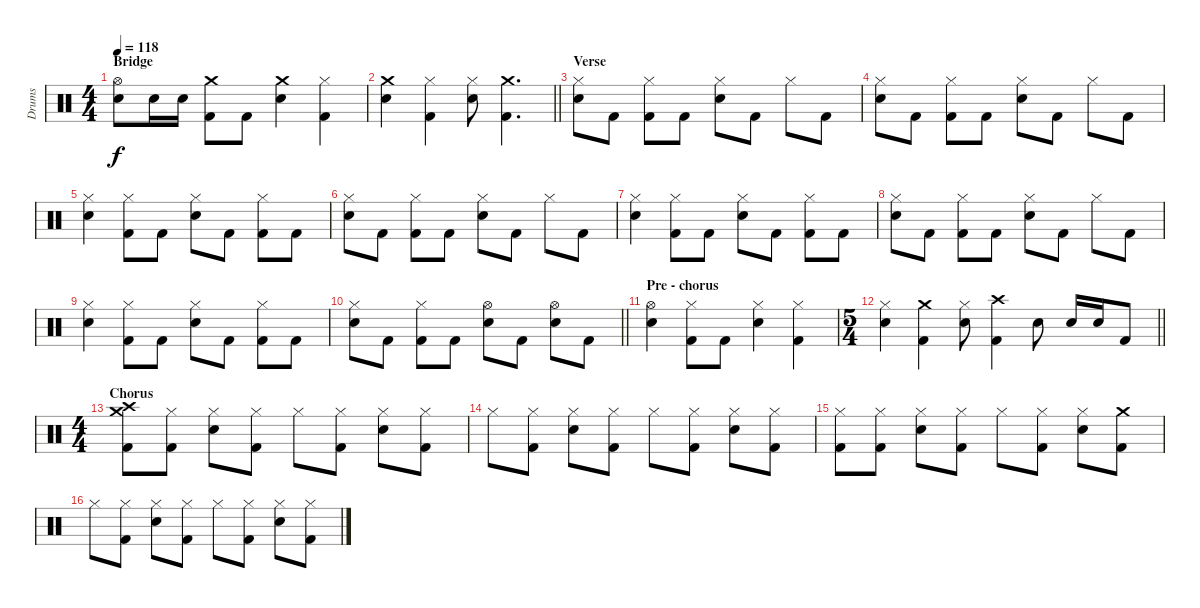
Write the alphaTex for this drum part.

\track ("Drums" "Drums") {instrument percussion}
\staff {score}
\articulation defaults
\ts (4 4)
\section ("" "Bridge")
\tempo 118
\clef neutral
\ks c
("Hi-Hat (open)" "Snare (hit) 2").8{dy f} "Snare (hit) 2".16 "Snare (hit) 2".16 ("Crash medium (hit)" "Kick (hit) 2").8 "Kick (hit) 2".8 ("Crash medium (hit)" "Snare (hit) 2").4 ("Hi-Hat (closed)" "Kick (hit) 2").4 |
\barLineRight lightlight
("Crash medium (hit)" "Snare (hit) 2").4 ("Hi-Hat (closed)" "Kick (hit) 2").4 ("Hi-Hat (closed)" "Snare (hit) 2").8 ("Crash medium (hit)" "Kick (hit) 2").4{d} |
\section ("" "Verse")
("Hi-Hat (closed)" "Snare (hit) 2").8 "Kick (hit) 2".8 ("Hi-Hat (closed)" "Kick (hit) 2").8 "Kick (hit) 2".8 ("Hi-Hat (closed)" "Snare (hit) 2").8 "Kick (hit) 2".8 "Hi-Hat (closed)".8 "Kick (hit) 2".8 |
("Hi-Hat (closed)" "Snare (hit) 2").8 "Kick (hit) 2".8 ("Hi-Hat (closed)" "Kick (hit) 2").8 "Kick (hit) 2".8 ("Hi-Hat (closed)" "Snare (hit) 2").8 "Kick (hit) 2".8 "Hi-Hat (closed)".8 "Kick (hit) 2".8 |
("Hi-Hat (closed)" "Snare (hit) 2").4 ("Hi-Hat (closed)" "Kick (hit) 2").8 "Kick (hit) 2".8 ("Hi-Hat (closed)" "Snare (hit) 2").8 "Kick (hit) 2".8 ("Hi-Hat (closed)" "Kick (hit) 2").8 "Kick (hit) 2".8 |
("Hi-Hat (closed)" "Snare (hit) 2").8 "Kick (hit) 2".8 ("Hi-Hat (closed)" "Kick (hit) 2").8 "Kick (hit) 2".8 ("Hi-Hat (closed)" "Snare (hit) 2").8 "Kick (hit) 2".8 "Hi-Hat (closed)".8 "Kick (hit) 2".8 |
("Hi-Hat (closed)" "Snare (hit) 2").4 ("Hi-Hat (closed)" "Kick (hit) 2").8 "Kick (hit) 2".8 ("Hi-Hat (closed)" "Snare (hit) 2").8 "Kick (hit) 2".8 ("Hi-Hat (closed)" "Kick (hit) 2").8 "Kick (hit) 2".8 |
("Hi-Hat (closed)" "Snare (hit) 2").8 "Kick (hit) 2".8 ("Hi-Hat (closed)" "Kick (hit) 2").8 "Kick (hit) 2".8 ("Hi-Hat (closed)" "Snare (hit) 2").8 "Kick (hit) 2".8 "Hi-Hat (closed)".8 "Kick (hit) 2".8 |
("Hi-Hat (closed)" "Snare (hit) 2").4 ("Hi-Hat (closed)" "Kick (hit) 2").8 "Kick (hit) 2".8 ("Hi-Hat (closed)" "Snare (hit) 2").8 "Kick (hit) 2".8 ("Hi-Hat (closed)" "Kick (hit) 2").8 "Kick (hit) 2".8 |
\barLineRight lightlight
("Hi-Hat (closed)" "Snare (hit) 2").8 "Kick (hit) 2".8 ("Hi-Hat (closed)" "Kick (hit) 2").8 "Kick (hit) 2".8 ("Hi-Hat (open)" "Snare (hit) 2").8 "Kick (hit) 2".8 ("Hi-Hat (open)" "Snare (hit) 2").8 "Kick (hit) 2".8 |
\section ("" "Pre - chorus")
("Hi-Hat (open)" "Snare (hit) 2").4 ("Hi-Hat (closed)" "Kick (hit) 2").8 "Kick (hit) 2".8 ("Hi-Hat (closed)" "Snare (hit) 2").4 ("Hi-Hat (closed)" "Kick (hit) 2").4 |
\ts (5 4)
\barLineRight lightlight
("Hi-Hat (closed)" "Snare (hit) 2").4 ("Crash medium (hit)" "Kick (hit) 2").4 ("Hi-Hat (closed)" "Snare (hit) 2").8 ("Crash high (hit)" "Kick (hit) 2").4 "Snare (hit) 2".8 "Snare (hit) 2".16 "Snare (hit) 2".16 "Kick (hit) 2".8 |
\ts (4 4)
\section ("" "Chorus")
("Crash medium (hit)" "Crash high (hit)" "Kick (hit) 2").8 ("Hi-Hat (closed)" "Kick (hit) 2").8 ("Hi-Hat (closed)" "Snare (hit) 2").8 ("Hi-Hat (closed)" "Kick (hit) 2").8 "Hi-Hat (closed)".8 ("Hi-Hat (closed)" "Kick (hit) 2").8 ("Hi-Hat (closed)" "Snare (hit) 2").8 ("Hi-Hat (closed)" "Kick (hit) 2").8 |
"Hi-Hat (closed)".8 ("Hi-Hat (closed)" "Kick (hit) 2").8 ("Hi-Hat (closed)" "Snare (hit) 2").8 ("Hi-Hat (closed)" "Kick (hit) 2").8 "Hi-Hat (closed)".8 ("Hi-Hat (closed)" "Kick (hit) 2").8 ("Hi-Hat (closed)" "Snare (hit) 2").8 ("Hi-Hat (closed)" "Kick (hit) 2").8 |
("Hi-Hat (closed)" "Kick (hit) 2").8 ("Hi-Hat (closed)" "Kick (hit) 2").8 ("Hi-Hat (closed)" "Snare (hit) 2").8 ("Hi-Hat (closed)" "Kick (hit) 2").8 "Hi-Hat (closed)".8 ("Hi-Hat (closed)" "Kick (hit) 2").8 ("Hi-Hat (closed)" "Snare (hit) 2").8 ("Crash medium (hit)" "Kick (hit) 2").8 |
"Hi-Hat (closed)".8 ("Hi-Hat (closed)" "Kick (hit) 2").8 ("Hi-Hat (closed)" "Snare (hit) 2").8 ("Hi-Hat (closed)" "Kick (hit) 2").8 "Hi-Hat (closed)".8 ("Hi-Hat (closed)" "Kick (hit) 2").8 ("Hi-Hat (closed)" "Snare (hit) 2").8 ("Hi-Hat (closed)" "Kick (hit) 2").8
